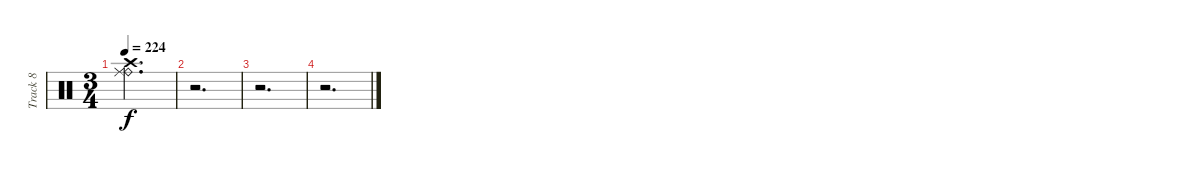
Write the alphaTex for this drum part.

\track ("Track 8" "Track 8") {instrument percussion}
\staff {score}
\articulation defaults
\ts (3 4)
\tempo 224
\clef neutral
\ks c
("Ride (bell)" "Crash high (hit)" "Ride (middle)").2{d dy f} |
r.2{d} |
r.2{d} |
r.2{d}
